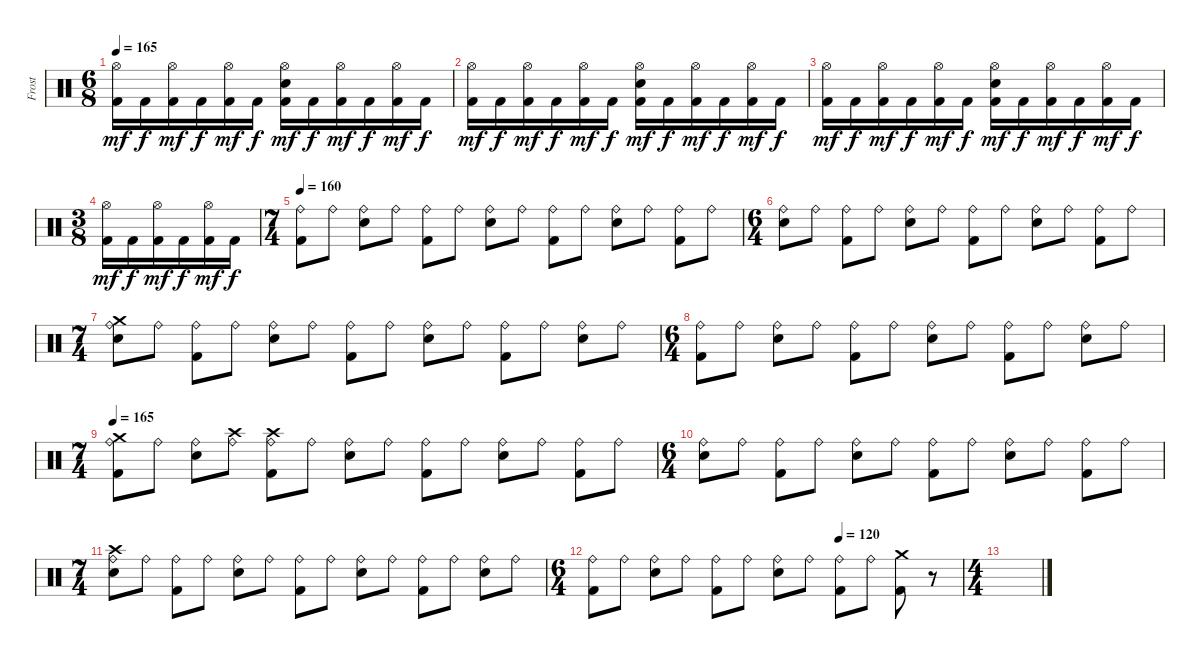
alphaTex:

\track ("Frost" "Frost") {instrument percussion}
\staff {score}
\articulation defaults
\ts (6 8)
\tempo 165
\clef neutral
\ks c
("Kick (hit) 2" "Hi-Hat (open)").16{dy mf} "Kick (hit) 2".16{dy f} ("Kick (hit) 2" "Hi-Hat (open)").16{dy mf} "Kick (hit) 2".16{dy f} ("Kick (hit) 2" "Hi-Hat (open)").16{dy mf} "Kick (hit) 2".16{dy f} ("Kick (hit) 2" "Hi-Hat (open)" "Snare (hit) 2").16{dy mf} "Kick (hit) 2".16{dy f} ("Kick (hit) 2" "Hi-Hat (open)").16{dy mf} "Kick (hit) 2".16{dy f} ("Kick (hit) 2" "Hi-Hat (open)").16{dy mf} "Kick (hit) 2".16{dy f} |
("Kick (hit) 2" "Hi-Hat (open)").16{dy mf} "Kick (hit) 2".16{dy f} ("Kick (hit) 2" "Hi-Hat (open)").16{dy mf} "Kick (hit) 2".16{dy f} ("Kick (hit) 2" "Hi-Hat (open)").16{dy mf} "Kick (hit) 2".16{dy f} ("Kick (hit) 2" "Hi-Hat (open)" "Snare (hit) 2").16{dy mf} "Kick (hit) 2".16{dy f} ("Kick (hit) 2" "Hi-Hat (open)").16{dy mf} "Kick (hit) 2".16{dy f} ("Kick (hit) 2" "Hi-Hat (open)").16{dy mf} "Kick (hit) 2".16{dy f} |
("Kick (hit) 2" "Hi-Hat (open)").16{dy mf} "Kick (hit) 2".16{dy f} ("Kick (hit) 2" "Hi-Hat (open)").16{dy mf} "Kick (hit) 2".16{dy f} ("Kick (hit) 2" "Hi-Hat (open)").16{dy mf} "Kick (hit) 2".16{dy f} ("Kick (hit) 2" "Hi-Hat (open)" "Snare (hit) 2").16{dy mf} "Kick (hit) 2".16{dy f} ("Kick (hit) 2" "Hi-Hat (open)").16{dy mf} "Kick (hit) 2".16{dy f} ("Kick (hit) 2" "Hi-Hat (open)").16{dy mf} "Kick (hit) 2".16{dy f} |
\ts (3 8)
("Kick (hit) 2" "Hi-Hat (open)").16{dy mf} "Kick (hit) 2".16{dy f} ("Kick (hit) 2" "Hi-Hat (open)").16{dy mf} "Kick (hit) 2".16{dy f} ("Kick (hit) 2" "Hi-Hat (open)").16{dy mf} "Kick (hit) 2".16{dy f} |
\ts (7 4)
\tempo 160
("Kick (hit) 2" "Ride (bell)").8 "Ride (bell)".8 ("Snare (hit) 2" "Ride (bell)").8 "Ride (bell)".8 ("Kick (hit) 2" "Ride (bell)").8 "Ride (bell)".8 ("Snare (hit) 2" "Ride (bell)").8 "Ride (bell)".8 ("Kick (hit) 2" "Ride (bell)").8 "Ride (bell)".8 ("Snare (hit) 2" "Ride (bell)").8 "Ride (bell)".8 ("Kick (hit) 2" "Ride (bell)").8 "Ride (bell)".8 |
\ts (6 4)
("Snare (hit) 2" "Ride (bell)").8 "Ride (bell)".8 ("Kick (hit) 2" "Ride (bell)").8 "Ride (bell)".8 ("Snare (hit) 2" "Ride (bell)").8 "Ride (bell)".8 ("Kick (hit) 2" "Ride (bell)").8 "Ride (bell)".8 ("Snare (hit) 2" "Ride (bell)").8 "Ride (bell)".8 ("Kick (hit) 2" "Ride (bell)").8 "Ride (bell)".8 |
\ts (7 4)
("Crash medium (hit)" "Snare (hit) 2" "Ride (bell)").8 "Ride (bell)".8 ("Kick (hit) 2" "Ride (bell)").8 "Ride (bell)".8 ("Snare (hit) 2" "Ride (bell)").8 "Ride (bell)".8 ("Kick (hit) 2" "Ride (bell)").8 "Ride (bell)".8 ("Snare (hit) 2" "Ride (bell)").8 "Ride (bell)".8 ("Kick (hit) 2" "Ride (bell)").8 "Ride (bell)".8 ("Snare (hit) 2" "Ride (bell)").8 "Ride (bell)".8 |
\ts (6 4)
("Kick (hit) 2" "Ride (bell)").8 "Ride (bell)".8 ("Snare (hit) 2" "Ride (bell)").8 "Ride (bell)".8 ("Kick (hit) 2" "Ride (bell)").8 "Ride (bell)".8 ("Snare (hit) 2" "Ride (bell)").8 "Ride (bell)".8 ("Kick (hit) 2" "Ride (bell)").8 "Ride (bell)".8 ("Snare (hit) 2" "Ride (bell)").8 "Ride (bell)".8 |
\ts (7 4)
\tempo 165
("Kick (hit) 2" "Crash medium (hit)" "Ride (bell)").8 "Ride (bell)".8 ("Snare (hit) 2" "Ride (bell)").8 ("Crash high (hit)" "Ride (bell)").8 ("Kick (hit) 2" "Crash high (hit)" "Ride (bell)").8 "Ride (bell)".8 ("Snare (hit) 2" "Ride (bell)").8 "Ride (bell)".8 ("Kick (hit) 2" "Ride (bell)").8 "Ride (bell)".8 ("Snare (hit) 2" "Ride (bell)").8 "Ride (bell)".8 ("Kick (hit) 2" "Ride (bell)").8 "Ride (bell)".8 |
\ts (6 4)
("Snare (hit) 2" "Ride (bell)").8 "Ride (bell)".8 ("Kick (hit) 2" "Ride (bell)").8 "Ride (bell)".8 ("Snare (hit) 2" "Ride (bell)").8 "Ride (bell)".8 ("Kick (hit) 2" "Ride (bell)").8 "Ride (bell)".8 ("Snare (hit) 2" "Ride (bell)").8 "Ride (bell)".8 ("Kick (hit) 2" "Ride (bell)").8 "Ride (bell)".8 |
\ts (7 4)
("Crash high (hit)" "Snare (hit) 2" "Ride (bell)").8 "Ride (bell)".8 ("Kick (hit) 2" "Ride (bell)").8 "Ride (bell)".8 ("Snare (hit) 2" "Ride (bell)").8 "Ride (bell)".8 ("Kick (hit) 2" "Ride (bell)").8 "Ride (bell)".8 ("Snare (hit) 2" "Ride (bell)").8 "Ride (bell)".8 ("Kick (hit) 2" "Ride (bell)").8 "Ride (bell)".8 ("Snare (hit) 2" "Ride (bell)").8 "Ride (bell)".8 |
\ts (6 4)
\tempo (120 0.6666666666666666)
("Kick (hit) 2" "Ride (bell)").8 "Ride (bell)".8 ("Snare (hit) 2" "Ride (bell)").8 "Ride (bell)".8 ("Kick (hit) 2" "Ride (bell)").8 "Ride (bell)".8 ("Snare (hit) 2" "Ride (bell)").8 "Ride (bell)".8 ("Kick (hit) 2" "Ride (bell)").8 "Ride (bell)".8 ("Kick (hit) 2" "Crash medium (hit)").8 r.8 |
\ts (4 4)
